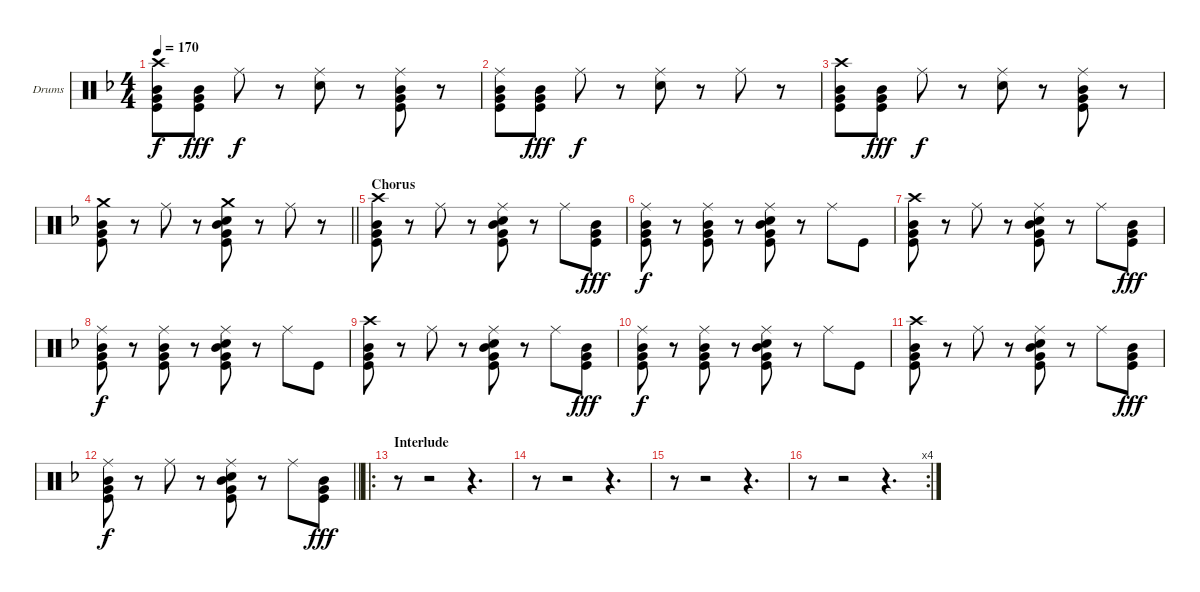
\bracketExtendMode groupsimilarinstruments
\firstSystemTrackNameOrientation horizontal
\otherSystemsTrackNameOrientation horizontal
\track ("Drumkit" "Drums") {instrument percussion}
\staff {score}
\articulation defaults
\ts (4 4)
\tempo 170
\clef neutral
\scale
0.333333
\ks dminor
("Crash high (hit)" "Mid Tom (hit)" "Very Low Tom (hit)" "Kick (hit)").8{dy f} ("Mid Tom (hit)" "Very Low Tom (hit)" "Kick (hit)").8{dy fff} "Ride (middle)".8{dy f} r.8 ("Ride (middle)" "Snare (hit) 2").8 r.8 ("Ride (middle)" "Mid Tom (hit)" "Very Low Tom (hit)" "Kick (hit)").8 r.8 |
\scale
0.333333 ("Ride (middle)" "Mid Tom (hit)" "Very Low Tom (hit)" "Kick (hit)").8 ("Mid Tom (hit)" "Very Low Tom (hit)" "Kick (hit)").8{dy fff} "Ride (middle)".8{dy f} r.8 ("Ride (middle)" "Snare (hit) 2").8 r.8 "Ride (middle)".8 r.8 |
\scale
0.333333 ("Crash high (hit)" "Mid Tom (hit)" "Very Low Tom (hit)" "Kick (hit)").8 ("Mid Tom (hit)" "Very Low Tom (hit)" "Kick (hit)").8{dy fff} "Ride (middle)".8{dy f} r.8 ("Ride (middle)" "Snare (hit) 2").8 r.8 ("Ride (middle)" "Mid Tom (hit)" "Very Low Tom (hit)" "Kick (hit)").8 r.8 |
\scale
0.333333
\barLineRight lightlight
("Crash medium (hit)" "Mid Tom (hit)" "Very Low Tom (hit)" "Kick (hit)").8 r.8 "Ride (middle)".8 r.8 ("Crash medium (hit)" "Snare (hit) 2" "Mid Tom (hit)" "Very Low Tom (hit)" "Kick (hit)").8 r.8 "Ride (middle)".8 r.8 |
\section ("" "Chorus")
\scale
0.333333 ("Crash high (hit)" "Mid Tom (hit)" "Very Low Tom (hit)" "Kick (hit)").8 r.8 "Ride (middle)".8 r.8 ("Ride (middle)" "Snare (hit) 2" "Mid Tom (hit)" "Very Low Tom (hit)" "Kick (hit)").8 r.8 "Ride (middle)".8 ("Mid Tom (hit)" "Very Low Tom (hit)" "Kick (hit)").8{dy fff} |
\scale
0.333333 ("Ride (middle)" "Mid Tom (hit)" "Very Low Tom (hit)" "Kick (hit)").8{dy f} r.8 ("Ride (middle)" "Mid Tom (hit)" "Very Low Tom (hit)" "Kick (hit)").8 r.8 ("Ride (middle)" "Snare (hit) 2" "Mid Tom (hit)" "Very Low Tom (hit)" "Kick (hit)").8 r.8 "Ride (middle)".8 "Kick (hit)".8 |
\scale
0.333333 ("Crash high (hit)" "Mid Tom (hit)" "Very Low Tom (hit)" "Kick (hit)").8 r.8 "Ride (middle)".8 r.8 ("Ride (middle)" "Snare (hit) 2" "Mid Tom (hit)" "Very Low Tom (hit)" "Kick (hit)").8 r.8 "Ride (middle)".8 ("Mid Tom (hit)" "Very Low Tom (hit)" "Kick (hit)").8{dy fff} |
\scale
0.333333 ("Ride (middle)" "Mid Tom (hit)" "Very Low Tom (hit)" "Kick (hit)").8{dy f} r.8 ("Ride (middle)" "Mid Tom (hit)" "Very Low Tom (hit)" "Kick (hit)").8 r.8 ("Ride (middle)" "Snare (hit) 2" "Mid Tom (hit)" "Very Low Tom (hit)" "Kick (hit)").8 r.8 "Ride (middle)".8 "Kick (hit)".8 |
\scale
0.333333 ("Crash high (hit)" "Mid Tom (hit)" "Very Low Tom (hit)" "Kick (hit)").8 r.8 "Ride (middle)".8 r.8 ("Ride (middle)" "Snare (hit) 2" "Mid Tom (hit)" "Very Low Tom (hit)" "Kick (hit)").8 r.8 "Ride (middle)".8 ("Mid Tom (hit)" "Very Low Tom (hit)" "Kick (hit)").8{dy fff} |
\scale
0.333333 ("Ride (middle)" "Mid Tom (hit)" "Very Low Tom (hit)" "Kick (hit)").8{dy f} r.8 ("Ride (middle)" "Mid Tom (hit)" "Very Low Tom (hit)" "Kick (hit)").8 r.8 ("Ride (middle)" "Snare (hit) 2" "Mid Tom (hit)" "Very Low Tom (hit)" "Kick (hit)").8 r.8 "Ride (middle)".8 "Kick (hit)".8 |
\scale
0.333333 ("Crash high (hit)" "Mid Tom (hit)" "Very Low Tom (hit)" "Kick (hit)").8 r.8 "Ride (middle)".8 r.8 ("Ride (middle)" "Snare (hit) 2" "Mid Tom (hit)" "Very Low Tom (hit)" "Kick (hit)").8 r.8 "Ride (middle)".8 ("Mid Tom (hit)" "Very Low Tom (hit)" "Kick (hit)").8{dy fff} |
\scale
0.333333
\barLineRight lightlight
("Ride (middle)" "Mid Tom (hit)" "Very Low Tom (hit)" "Kick (hit)").8{dy f} r.8 "Ride (middle)".8 r.8 ("Ride (middle)" "Snare (hit) 2" "Mid Tom (hit)" "Very Low Tom (hit)" "Kick (hit)").8 r.8 "Ride (middle)".8 ("Mid Tom (hit)" "Very Low Tom (hit)" "Kick (hit)").8{dy fff} |
\ro
\section ("" "Interlude")
\scale
0.333333 r.8 r.2 r.4{d} |
\scale
0.333333 r.8 r.2 r.4{d} |
\scale
0.333333 r.8 r.2 r.4{d} |
\rc 4
\scale
0.321101 r.8 r.2 r.4{d}
